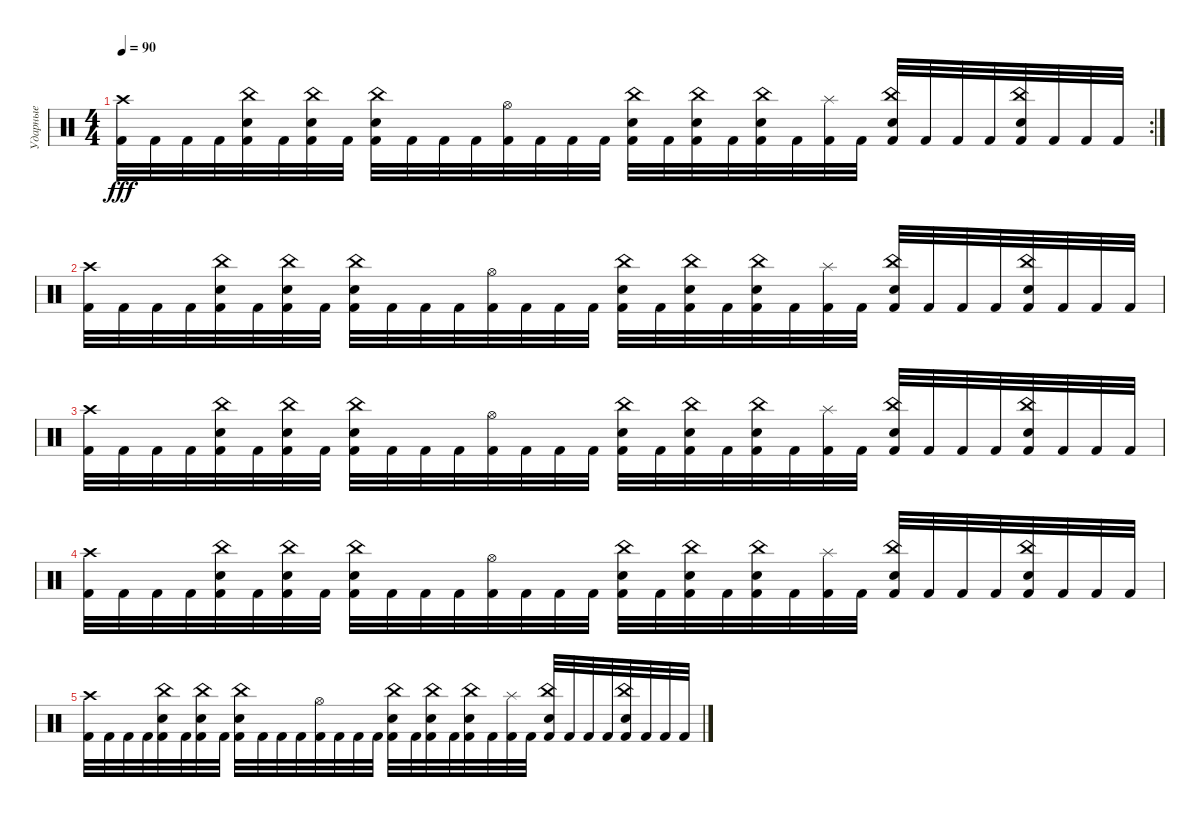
\track ("Ударные" "Ударные") {instrument percussion}
\staff {score}
\articulation defaults
\rc 2
\ts (4 4)
\tempo 90
\clef neutral
\ks c
("Crash high (hit)" "Kick (hit) 2").32{dy fff} "Kick (hit) 2".32 "Kick (hit) 2".32 "Kick (hit) 2".32 ("China (hit)" "Electric Snare (hit)" "Kick (hit) 2").32 "Kick (hit) 2".32 ("China (hit)" "Electric Snare (hit)" "Kick (hit) 2").32 "Kick (hit) 2".32 ("China (hit)" "Electric Snare (hit)" "Kick (hit) 2").32 "Kick (hit) 2".32 "Kick (hit) 2".32 "Kick (hit) 2".32 ("Hi-Hat (open)" "Kick (hit) 2").32 "Kick (hit) 2".32 "Kick (hit) 2".32 "Kick (hit) 2".32 ("China (hit)" "Electric Snare (hit)" "Kick (hit) 2").32 "Kick (hit) 2".32 ("China (hit)" "Electric Snare (hit)" "Kick (hit) 2").32 "Kick (hit) 2".32 ("China (hit)" "Electric Snare (hit)" "Kick (hit) 2").32 "Kick (hit) 2".32 ("Splash (hit)" "Kick (hit) 2").32 "Kick (hit) 2".32 ("China (hit)" "Electric Snare (hit)" "Kick (hit) 2").32 "Kick (hit) 2".32 "Kick (hit) 2".32 "Kick (hit) 2".32 ("China (hit)" "Electric Snare (hit)" "Kick (hit) 2").32 "Kick (hit) 2".32 "Kick (hit) 2".32 "Kick (hit) 2".32 |
("Crash high (hit)" "Kick (hit) 2").32 "Kick (hit) 2".32 "Kick (hit) 2".32 "Kick (hit) 2".32 ("China (hit)" "Electric Snare (hit)" "Kick (hit) 2").32 "Kick (hit) 2".32 ("China (hit)" "Electric Snare (hit)" "Kick (hit) 2").32 "Kick (hit) 2".32 ("China (hit)" "Electric Snare (hit)" "Kick (hit) 2").32 "Kick (hit) 2".32 "Kick (hit) 2".32 "Kick (hit) 2".32 ("Hi-Hat (open)" "Kick (hit) 2").32 "Kick (hit) 2".32 "Kick (hit) 2".32 "Kick (hit) 2".32 ("China (hit)" "Electric Snare (hit)" "Kick (hit) 2").32 "Kick (hit) 2".32 ("China (hit)" "Electric Snare (hit)" "Kick (hit) 2").32 "Kick (hit) 2".32 ("China (hit)" "Electric Snare (hit)" "Kick (hit) 2").32 "Kick (hit) 2".32 ("Splash (hit)" "Kick (hit) 2").32 "Kick (hit) 2".32 ("China (hit)" "Electric Snare (hit)" "Kick (hit) 2").32 "Kick (hit) 2".32 "Kick (hit) 2".32 "Kick (hit) 2".32 ("China (hit)" "Electric Snare (hit)" "Kick (hit) 2").32 "Kick (hit) 2".32 "Kick (hit) 2".32 "Kick (hit) 2".32 |
("Crash high (hit)" "Kick (hit) 2").32 "Kick (hit) 2".32 "Kick (hit) 2".32 "Kick (hit) 2".32 ("China (hit)" "Electric Snare (hit)" "Kick (hit) 2").32 "Kick (hit) 2".32 ("China (hit)" "Electric Snare (hit)" "Kick (hit) 2").32 "Kick (hit) 2".32 ("China (hit)" "Electric Snare (hit)" "Kick (hit) 2").32 "Kick (hit) 2".32 "Kick (hit) 2".32 "Kick (hit) 2".32 ("Hi-Hat (open)" "Kick (hit) 2").32 "Kick (hit) 2".32 "Kick (hit) 2".32 "Kick (hit) 2".32 ("China (hit)" "Electric Snare (hit)" "Kick (hit) 2").32 "Kick (hit) 2".32 ("China (hit)" "Electric Snare (hit)" "Kick (hit) 2").32 "Kick (hit) 2".32 ("China (hit)" "Electric Snare (hit)" "Kick (hit) 2").32 "Kick (hit) 2".32 ("Splash (hit)" "Kick (hit) 2").32 "Kick (hit) 2".32 ("China (hit)" "Electric Snare (hit)" "Kick (hit) 2").32 "Kick (hit) 2".32 "Kick (hit) 2".32 "Kick (hit) 2".32 ("China (hit)" "Electric Snare (hit)" "Kick (hit) 2").32 "Kick (hit) 2".32 "Kick (hit) 2".32 "Kick (hit) 2".32 |
("Crash high (hit)" "Kick (hit) 2").32 "Kick (hit) 2".32 "Kick (hit) 2".32 "Kick (hit) 2".32 ("China (hit)" "Electric Snare (hit)" "Kick (hit) 2").32 "Kick (hit) 2".32 ("China (hit)" "Electric Snare (hit)" "Kick (hit) 2").32 "Kick (hit) 2".32 ("China (hit)" "Electric Snare (hit)" "Kick (hit) 2").32 "Kick (hit) 2".32 "Kick (hit) 2".32 "Kick (hit) 2".32 ("Hi-Hat (open)" "Kick (hit) 2").32 "Kick (hit) 2".32 "Kick (hit) 2".32 "Kick (hit) 2".32 ("China (hit)" "Electric Snare (hit)" "Kick (hit) 2").32 "Kick (hit) 2".32 ("China (hit)" "Electric Snare (hit)" "Kick (hit) 2").32 "Kick (hit) 2".32 ("China (hit)" "Electric Snare (hit)" "Kick (hit) 2").32 "Kick (hit) 2".32 ("Splash (hit)" "Kick (hit) 2").32 "Kick (hit) 2".32 ("China (hit)" "Electric Snare (hit)" "Kick (hit) 2").32 "Kick (hit) 2".32 "Kick (hit) 2".32 "Kick (hit) 2".32 ("China (hit)" "Electric Snare (hit)" "Kick (hit) 2").32 "Kick (hit) 2".32 "Kick (hit) 2".32 "Kick (hit) 2".32 |
("Crash high (hit)" "Kick (hit) 2").32 "Kick (hit) 2".32 "Kick (hit) 2".32 "Kick (hit) 2".32 ("China (hit)" "Electric Snare (hit)" "Kick (hit) 2").32 "Kick (hit) 2".32 ("China (hit)" "Electric Snare (hit)" "Kick (hit) 2").32 "Kick (hit) 2".32 ("China (hit)" "Electric Snare (hit)" "Kick (hit) 2").32 "Kick (hit) 2".32 "Kick (hit) 2".32 "Kick (hit) 2".32 ("Hi-Hat (open)" "Kick (hit) 2").32 "Kick (hit) 2".32 "Kick (hit) 2".32 "Kick (hit) 2".32 ("China (hit)" "Electric Snare (hit)" "Kick (hit) 2").32 "Kick (hit) 2".32 ("China (hit)" "Electric Snare (hit)" "Kick (hit) 2").32 "Kick (hit) 2".32 ("China (hit)" "Electric Snare (hit)" "Kick (hit) 2").32 "Kick (hit) 2".32 ("Splash (hit)" "Kick (hit) 2").32 "Kick (hit) 2".32 ("China (hit)" "Electric Snare (hit)" "Kick (hit) 2").32 "Kick (hit) 2".32 "Kick (hit) 2".32 "Kick (hit) 2".32 ("China (hit)" "Electric Snare (hit)" "Kick (hit) 2").32 "Kick (hit) 2".32 "Kick (hit) 2".32 "Kick (hit) 2".32
